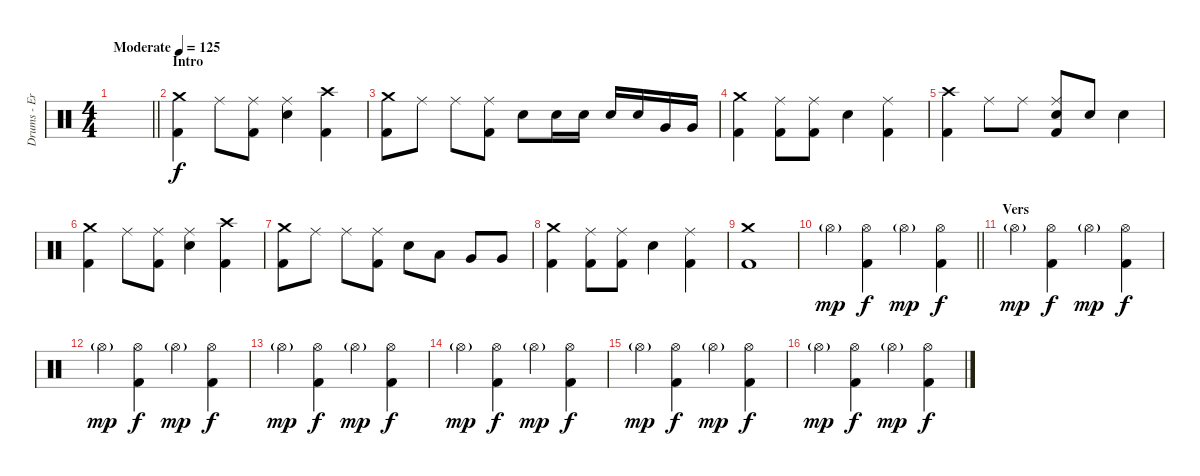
\track ("Drums - Eric Young" "Drums - Er") {instrument percussion}
\staff {score}
\articulation defaults
\ts (4 4)
\tempo (125 "Moderate")
\clef neutral
\barLineRight lightlight
\ks c
|
\section ("" "Intro")
("Crash medium (hit)" "Kick (hit) 2").4 "Ride (middle)".8 ("Ride (middle)" "Kick (hit) 2").8 ("Ride (middle)" "Electric Snare (hit)").4 ("Crash high (hit)" "Kick (hit) 2").4 |
("Crash medium (hit)" "Kick (hit) 2").8 "Ride (middle)".8 "Ride (middle)".8 ("Ride (middle)" "Kick (hit) 2").8 "Electric Snare (hit)".8 "Electric Snare (hit)".16 "Electric Snare (hit)".16 "Electric Snare (hit)".16 "Electric Snare (hit)".16 "Very Low Tom (hit)".16 "Very Low Tom (hit)".16 |
("Crash medium (hit)" "Kick (hit) 2").4 ("Ride (middle)" "Kick (hit) 2").8 ("Ride (middle)" "Kick (hit) 2").8 "Electric Snare (hit)".4 ("Ride (middle)" "Kick (hit) 2").4 |
("Crash high (hit)" "Kick (hit) 2").4 "Ride (middle)".8 "Ride (middle)".8 ("Ride (middle)" "Electric Snare (hit)" "Kick (hit) 2").8 "Electric Snare (hit)".8 "Electric Snare (hit)".4 |
("Crash medium (hit)" "Kick (hit) 2").4 "Ride (middle)".8 ("Ride (middle)" "Kick (hit) 2").8 ("Ride (middle)" "Electric Snare (hit)").4 ("Crash high (hit)" "Kick (hit) 2").4 |
("Crash medium (hit)" "Kick (hit) 2").8 "Ride (middle)".8 "Ride (middle)".8 ("Ride (middle)" "Kick (hit) 2").8 "Electric Snare (hit)".8 "Low Tom (hit)".8 "Very Low Tom (hit)".8 "Very Low Tom (hit)".8 |
("Crash medium (hit)" "Kick (hit) 2").4 ("Ride (middle)" "Kick (hit) 2").8 ("Ride (middle)" "Kick (hit) 2").8 "Electric Snare (hit)".4 ("Ride (middle)" "Kick (hit) 2").4 |
("Crash medium (hit)" "Kick (hit) 2").1 |
\barLineRight lightlight "Hi-Hat (open)"{g}.4{dy mp}
("Hi-Hat (open)" "Kick (hit) 2").4{dy f} "Hi-Hat (open)"{g}.4{dy mp} ("Hi-Hat (open)" "Kick (hit) 2").4{dy f} |
\section ("" "Vers")
"Hi-Hat (open)"{g}.4{dy mp} ("Hi-Hat (open)" "Kick (hit) 2").4{dy f} "Hi-Hat (open)"{g}.4{dy mp} ("Hi-Hat (open)" "Kick (hit) 2").4{dy f} |
"Hi-Hat (open)"{g}.4{dy mp} ("Hi-Hat (open)" "Kick (hit) 2").4{dy f} "Hi-Hat (open)"{g}.4{dy mp} ("Hi-Hat (open)" "Kick (hit) 2").4{dy f} |
"Hi-Hat (open)"{g}.4{dy mp} ("Hi-Hat (open)" "Kick (hit) 2").4{dy f} "Hi-Hat (open)"{g}.4{dy mp} ("Hi-Hat (open)" "Kick (hit) 2").4{dy f} |
"Hi-Hat (open)"{g}.4{dy mp} ("Hi-Hat (open)" "Kick (hit) 2").4{dy f} "Hi-Hat (open)"{g}.4{dy mp} ("Hi-Hat (open)" "Kick (hit) 2").4{dy f} |
"Hi-Hat (open)"{g}.4{dy mp} ("Hi-Hat (open)" "Kick (hit) 2").4{dy f} "Hi-Hat (open)"{g}.4{dy mp} ("Hi-Hat (open)" "Kick (hit) 2").4{dy f} |
"Hi-Hat (open)"{g}.4{dy mp} ("Hi-Hat (open)" "Kick (hit) 2").4{dy f} "Hi-Hat (open)"{g}.4{dy mp} ("Hi-Hat (open)" "Kick (hit) 2").4{dy f}
